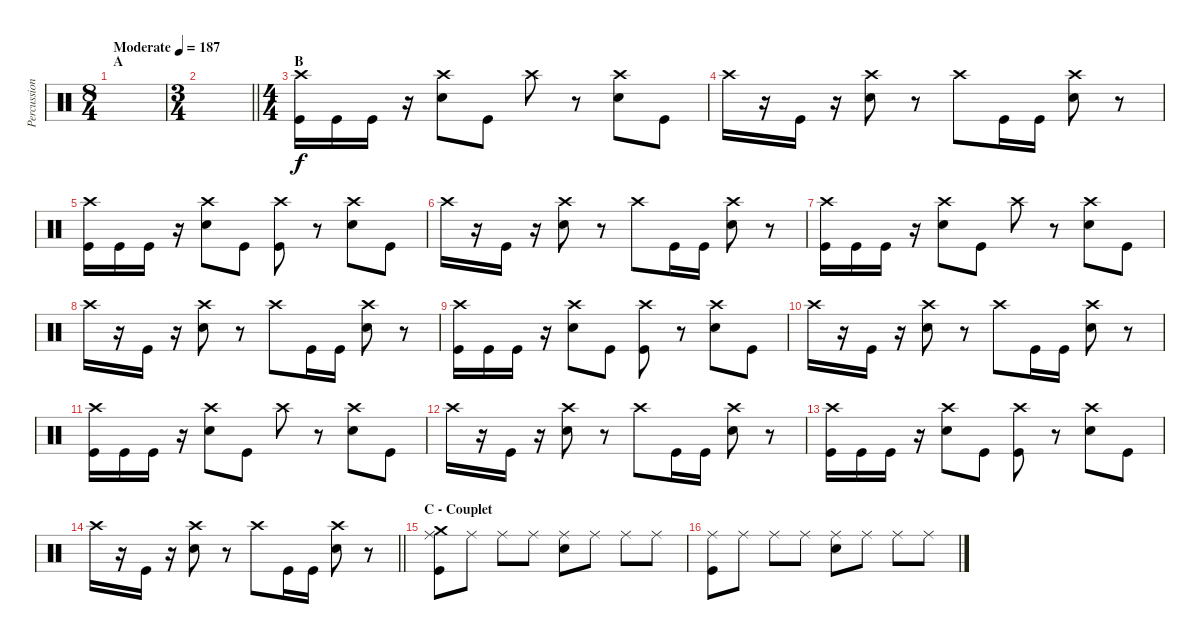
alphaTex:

\track ("Percussions" "Percussion") {instrument percussion}
\staff {score}
\articulation defaults
\ts (8 4)
\section ("" "A")
\tempo (187 "Moderate")
\clef neutral
\ks c
|
\ts (3 4)
\barLineRight lightlight
|
\ts (4 4)
\section ("" "B")
("Crash high (hit)" "Kick (hit)").16 "Kick (hit)".16 "Kick (hit)".16 r.16 ("Crash high (hit)" "Snare (hit) 2").8 "Kick (hit)".8 "Crash high (hit)".8 r.8 ("Crash high (hit)" "Snare (hit) 2").8 "Kick (hit)".8 |
"Crash high (hit)".16 r.16 "Kick (hit)".16 r.16 ("Crash high (hit)" "Snare (hit) 2").8 r.8 "Crash high (hit)".8 "Kick (hit)".16 "Kick (hit)".16 ("Crash high (hit)" "Snare (hit) 2").8 r.8 |
("Crash high (hit)" "Kick (hit)").16 "Kick (hit)".16 "Kick (hit)".16 r.16 ("Crash high (hit)" "Snare (hit) 2").8 "Kick (hit)".8 ("Crash high (hit)" "Kick (hit)").8 r.8 ("Crash high (hit)" "Snare (hit) 2").8 "Kick (hit)".8 |
"Crash high (hit)".16 r.16 "Kick (hit)".16 r.16 ("Crash high (hit)" "Snare (hit) 2").8 r.8 "Crash high (hit)".8 "Kick (hit)".16 "Kick (hit)".16 ("Crash high (hit)" "Snare (hit) 2").8 r.8 |
("Crash high (hit)" "Kick (hit)").16 "Kick (hit)".16 "Kick (hit)".16 r.16 ("Crash high (hit)" "Snare (hit) 2").8 "Kick (hit)".8 "Crash high (hit)".8 r.8 ("Crash high (hit)" "Snare (hit) 2").8 "Kick (hit)".8 |
"Crash high (hit)".16 r.16 "Kick (hit)".16 r.16 ("Crash high (hit)" "Snare (hit) 2").8 r.8 "Crash high (hit)".8 "Kick (hit)".16 "Kick (hit)".16 ("Crash high (hit)" "Snare (hit) 2").8 r.8 |
("Crash high (hit)" "Kick (hit)").16 "Kick (hit)".16 "Kick (hit)".16 r.16 ("Crash high (hit)" "Snare (hit) 2").8 "Kick (hit)".8 ("Crash high (hit)" "Kick (hit)").8 r.8 ("Crash high (hit)" "Snare (hit) 2").8 "Kick (hit)".8 |
"Crash high (hit)".16 r.16 "Kick (hit)".16 r.16 ("Crash high (hit)" "Snare (hit) 2").8 r.8 "Crash high (hit)".8 "Kick (hit)".16 "Kick (hit)".16 ("Crash high (hit)" "Snare (hit) 2").8 r.8 |
("Crash high (hit)" "Kick (hit)").16 "Kick (hit)".16 "Kick (hit)".16 r.16 ("Crash high (hit)" "Snare (hit) 2").8 "Kick (hit)".8 "Crash high (hit)".8 r.8 ("Crash high (hit)" "Snare (hit) 2").8 "Kick (hit)".8 |
"Crash high (hit)".16 r.16 "Kick (hit)".16 r.16 ("Crash high (hit)" "Snare (hit) 2").8 r.8 "Crash high (hit)".8 "Kick (hit)".16 "Kick (hit)".16 ("Crash high (hit)" "Snare (hit) 2").8 r.8 |
("Crash high (hit)" "Kick (hit)").16 "Kick (hit)".16 "Kick (hit)".16 r.16 ("Crash high (hit)" "Snare (hit) 2").8 "Kick (hit)".8 ("Crash high (hit)" "Kick (hit)").8 r.8 ("Crash high (hit)" "Snare (hit) 2").8 "Kick (hit)".8 |
\barLineRight lightlight "Crash high (hit)".16
r.16 "Kick (hit)".16 r.16 ("Crash high (hit)" "Snare (hit) 2").8 r.8 "Crash high (hit)".8 "Kick (hit)".16 "Kick (hit)".16 ("Crash high (hit)" "Snare (hit) 2").8 r.8 |
\section ("" "C - Couplet")
("Crash medium (hit)" "Ride (middle)" "Kick (hit)").8 "Ride (middle)".8 "Ride (middle)".8 "Ride (middle)".8 ("Ride (middle)" "Snare (hit) 2").8 "Ride (middle)".8 "Ride (middle)".8 "Ride (middle)".8 |
("Ride (middle)" "Kick (hit)").8 "Ride (middle)".8 "Ride (middle)".8 "Ride (middle)".8 ("Ride (middle)" "Snare (hit) 2").8 "Ride (middle)".8 "Ride (middle)".8 "Ride (middle)".8
